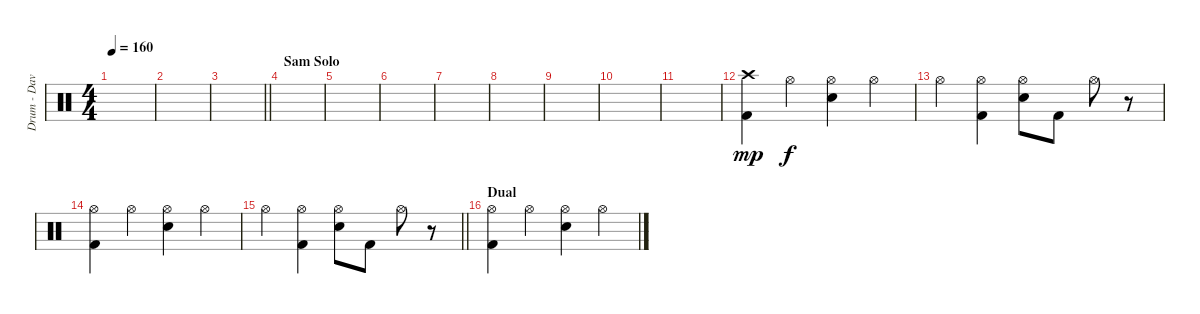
\track ("Drum - Dave Mackintosh" "Drum - Dav") {instrument percussion}
\staff {score}
\articulation defaults
\ts (4 4)
\tempo 160
\clef neutral
\ks c
|
|
\barLineRight lightlight
|
\section ("" "Sam Solo")
|
|
|
|
|
|
|
|
("Crash high (hit)" "Kick (hit) 2").4{dy mp} "Hi-Hat (open)".4{dy f} ("Hi-Hat (open)" "Electric Snare (hit)").4 "Hi-Hat (open)".4 |
"Hi-Hat (open)".4 ("Hi-Hat (open)" "Kick (hit) 2").4 ("Hi-Hat (open)" "Electric Snare (hit)").8 "Kick (hit) 2".8 "Hi-Hat (open)".8 r.8 |
("Hi-Hat (open)" "Kick (hit) 2").4 "Hi-Hat (open)".4 ("Hi-Hat (open)" "Electric Snare (hit)").4 "Hi-Hat (open)".4 |
\barLineRight lightlight "Hi-Hat (open)".4
("Hi-Hat (open)" "Kick (hit) 2").4 ("Hi-Hat (open)" "Electric Snare (hit)").8 "Kick (hit) 2".8 "Hi-Hat (open)".8 r.8 |
\section ("" "Dual")
("Hi-Hat (open)" "Kick (hit) 2").4 "Hi-Hat (open)".4 ("Hi-Hat (open)" "Electric Snare (hit)").4 "Hi-Hat (open)".4
